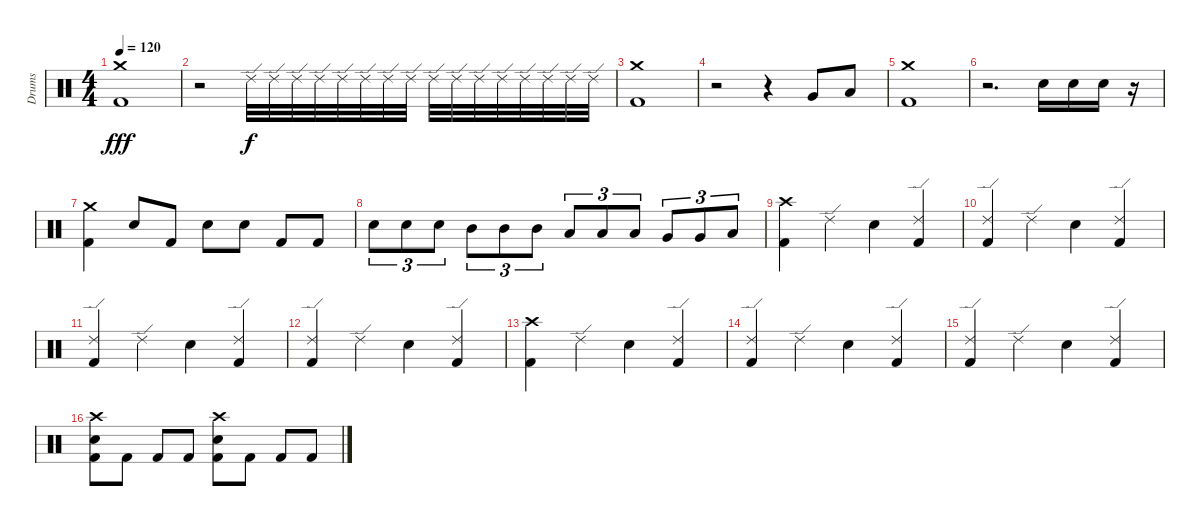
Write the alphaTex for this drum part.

\track ("Drums" "Drums") {instrument percussion}
\staff {score}
\articulation defaults
\ts (4 4)
\tempo 120
\clef neutral
\ks c
("Crash medium (hit)" "Kick (hit) 2").1{dy fff} |
r.2 "Ride (edge) 2".32{dy f} "Ride (edge) 2".32 "Ride (edge) 2".32 "Ride (edge) 2".32 "Ride (edge) 2".32 "Ride (edge) 2".32 "Ride (edge) 2".32 "Ride (edge) 2".32 "Ride (edge) 2".32 "Ride (edge) 2".32 "Ride (edge) 2".32 "Ride (edge) 2".32 "Ride (edge) 2".32 "Ride (edge) 2".32 "Ride (edge) 2".32 "Ride (edge) 2".32 |
("Crash medium (hit)" "Kick (hit) 2").1 |
r.2 r.4 "Very Low Tom (hit)".8 "Low Floor Tom (hit)".8 |
("Crash medium (hit)" "Kick (hit) 2").1 |
r.2{d} "Snare (hit) 2".16 "Snare (hit) 2".16 "Snare (hit) 2".16 r.16 |
("Crash medium (hit)" "Kick (hit) 2").4 "Snare (hit) 2".8 "Kick (hit) 2".8 "Snare (hit) 2".8 "Snare (hit) 2".8 "Kick (hit) 2".8 "Kick (hit) 2".8 |
"Snare (hit) 2".8{tu (3 2)} "Snare (hit) 2".8{tu (3 2)} "Snare (hit) 2".8{tu (3 2)} "Mid Tom (hit)".8{tu (3 2)} "Mid Tom (hit)".8{tu (3 2)} "Mid Tom (hit)".8{tu (3 2)} "Low Tom (hit)".8{tu (3 2)} "Low Tom (hit)".8{tu (3 2)} "Low Tom (hit)".8{tu (3 2)} "Very Low Tom (hit)".8{tu (3 2)} "Very Low Tom (hit)".8{tu (3 2)} "Low Floor Tom (hit)".8{tu (3 2)} |
("Crash high (hit)" "Kick (hit) 2").4 "Ride (edge) 2".4 "Snare (hit) 2".4 ("Ride (edge) 2" "Kick (hit) 2").4 |
("Ride (edge) 2" "Kick (hit) 2").4 "Ride (edge) 2".4 "Snare (hit) 2".4 ("Ride (edge) 2" "Kick (hit) 2").4 |
("Ride (edge) 2" "Kick (hit) 2").4 "Ride (edge) 2".4 "Snare (hit) 2".4 ("Ride (edge) 2" "Kick (hit) 2").4 |
("Ride (edge) 2" "Kick (hit) 2").4 "Ride (edge) 2".4 "Snare (hit) 2".4 ("Ride (edge) 2" "Kick (hit) 2").4 |
("Crash high (hit)" "Kick (hit) 2").4 "Ride (edge) 2".4 "Snare (hit) 2".4 ("Ride (edge) 2" "Kick (hit) 2").4 |
("Ride (edge) 2" "Kick (hit) 2").4 "Ride (edge) 2".4 "Snare (hit) 2".4 ("Ride (edge) 2" "Kick (hit) 2").4 |
("Ride (edge) 2" "Kick (hit) 2").4 "Ride (edge) 2".4 "Snare (hit) 2".4 ("Ride (edge) 2" "Kick (hit) 2").4 |
("Crash high (hit)" "Snare (hit) 2" "Kick (hit) 2").8 "Kick (hit) 2".8 "Kick (hit) 2".8 "Kick (hit) 2".8 ("Crash high (hit)" "Snare (hit) 2" "Kick (hit) 2").8 "Kick (hit) 2".8 "Kick (hit) 2".8 "Kick (hit) 2".8
